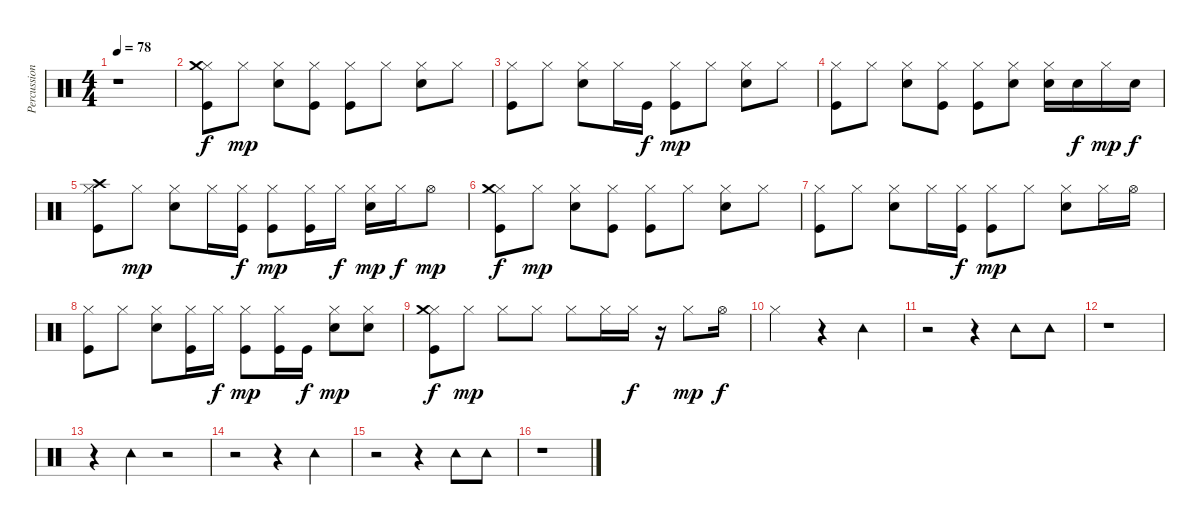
\track ("Percussion" "Percussion") {instrument percussion}
\staff {score}
\articulation defaults
\ts (4 4)
\tempo 78
\clef neutral
\ks c
r.1{dy f} |
("Kick (hit)" "Hi-Hat (closed)" "Crash medium (hit)").8 "Hi-Hat (closed)".8{dy mp} ("Electric Snare (hit)" "Hi-Hat (closed)").8 ("Kick (hit)" "Hi-Hat (closed)").8 ("Kick (hit)" "Hi-Hat (closed)").8 "Hi-Hat (closed)".8 ("Electric Snare (hit)" "Hi-Hat (closed)").8 "Hi-Hat (closed)".8 |
("Kick (hit)" "Hi-Hat (closed)").8 "Hi-Hat (closed)".8 ("Electric Snare (hit)" "Hi-Hat (closed)").8 "Hi-Hat (closed)".16 "Kick (hit)".16{dy f} ("Kick (hit)" "Hi-Hat (closed)").8{dy mp} "Hi-Hat (closed)".8 ("Electric Snare (hit)" "Hi-Hat (closed)").8 "Hi-Hat (closed)".8 |
("Kick (hit)" "Hi-Hat (closed)").8 "Hi-Hat (closed)".8 ("Electric Snare (hit)" "Hi-Hat (closed)").8 ("Kick (hit)" "Hi-Hat (closed)").8 ("Kick (hit)" "Hi-Hat (closed)").8 ("Electric Snare (hit)" "Hi-Hat (closed)").8 ("Electric Snare (hit)" "Hi-Hat (closed)").16 "Electric Snare (hit)".16{dy f} "Hi-Hat (closed)".16{dy mp} "Electric Snare (hit)".16{dy f} |
("Kick (hit)" "Hi-Hat (closed)" "Crash high (hit)").8 "Hi-Hat (closed)".8{dy mp} ("Electric Snare (hit)" "Hi-Hat (closed)").8 "Hi-Hat (closed)".16 ("Kick (hit)" "Hi-Hat (closed)").16{dy f} ("Kick (hit)" "Hi-Hat (closed)").8{dy mp} ("Kick (hit)" "Hi-Hat (closed)").16 "Hi-Hat (closed)".16{dy f} ("Electric Snare (hit)" "Hi-Hat (closed)").16{dy mp} "Hi-Hat (closed)".16{dy f} "Hi-Hat (open)".8{dy mp} |
("Kick (hit)" "Hi-Hat (closed)" "Crash medium (hit)").8{dy f} "Hi-Hat (closed)".8{dy mp} ("Electric Snare (hit)" "Hi-Hat (closed)").8 ("Kick (hit)" "Hi-Hat (closed)").8 ("Kick (hit)" "Hi-Hat (closed)").8 "Hi-Hat (closed)".8 ("Electric Snare (hit)" "Hi-Hat (closed)").8 "Hi-Hat (closed)".8 |
("Kick (hit)" "Hi-Hat (closed)").8 "Hi-Hat (closed)".8 ("Electric Snare (hit)" "Hi-Hat (closed)").8 "Hi-Hat (closed)".16 ("Kick (hit)" "Hi-Hat (closed)").16{dy f} ("Kick (hit)" "Hi-Hat (closed)").8{dy mp} "Hi-Hat (closed)".8 ("Electric Snare (hit)" "Hi-Hat (closed)").8 "Hi-Hat (closed)".16 "Hi-Hat (open)".16 |
("Kick (hit)" "Hi-Hat (closed)").8 "Hi-Hat (closed)".8 ("Electric Snare (hit)" "Hi-Hat (closed)").8 ("Kick (hit)" "Hi-Hat (closed)").16 "Hi-Hat (closed)".16{dy f} ("Kick (hit)" "Hi-Hat (closed)").8{dy mp} ("Kick (hit)" "Hi-Hat (closed)").16 "Kick (hit)".16{dy f} ("Electric Snare (hit)" "Hi-Hat (closed)").8{dy mp} ("Electric Snare (hit)" "Hi-Hat (closed)").8 |
("Kick (hit)" "Hi-Hat (closed)" "Crash medium (hit)").8{dy f} "Hi-Hat (closed)".8{dy mp} "Hi-Hat (closed)".8 "Hi-Hat (closed)".8 "Hi-Hat (closed)".8 "Hi-Hat (closed)".16 "Hi-Hat (closed)".16{dy f} r.16 "Hi-Hat (closed)".8{dy mp} "Hi-Hat (open)".16{dy f} |
"Hi-Hat (closed)".2 r.4 "Tambourine (hit)".4 |
r.2 r.4 "Tambourine (hit)".8 "Tambourine (hit)".8 |
r.1 |
r.4 "Tambourine (hit)".4 r.2 |
r.2 r.4 "Tambourine (hit)".4 |
r.2 r.4 "Tambourine (hit)".8 "Tambourine (hit)".8 |
r.1
